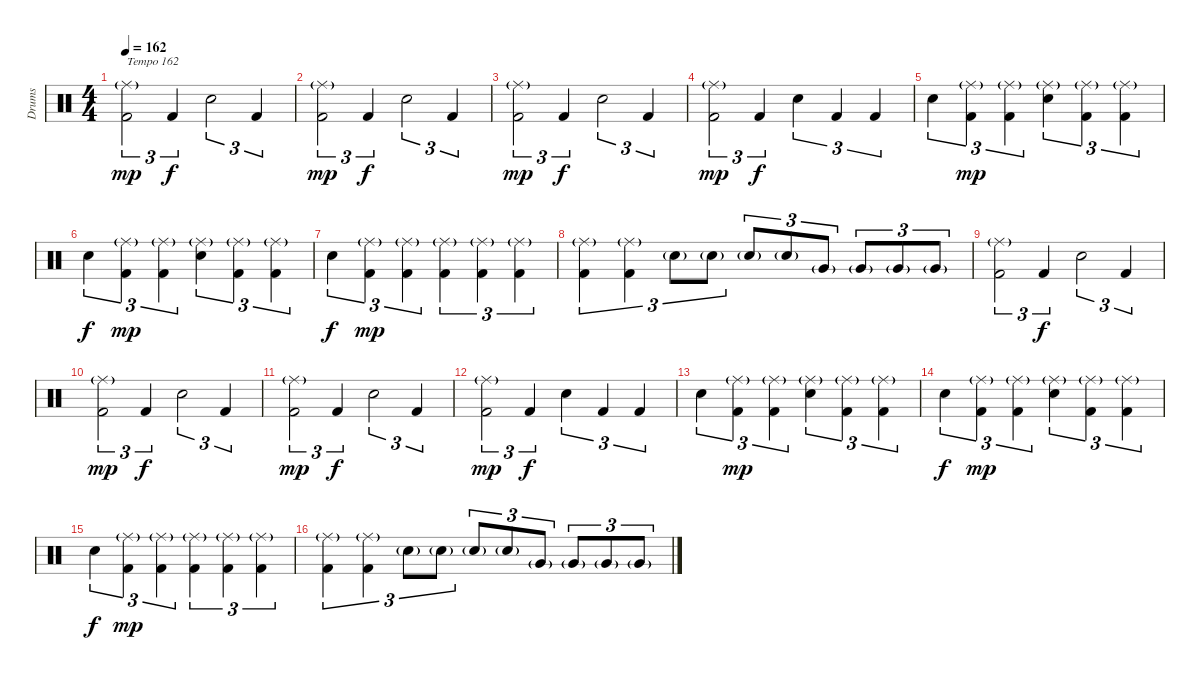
\track ("Drums" "Drums") {instrument percussion}
\staff {score}
\articulation defaults
\ts (4 4)
\tempo 162
\clef neutral
\ks c
("Ride (middle)"{g} "Kick (hit) 2").2{tu (3 2) txt "Tempo 162" dy mp} "Kick (hit) 2".4{tu (3 2) dy f} "Electric Snare (hit)".2{tu (3 2)} "Kick (hit) 2".4{tu (3 2)} |
("Ride (middle)"{g} "Kick (hit) 2").2{tu (3 2) dy mp} "Kick (hit) 2".4{tu (3 2) dy f} "Electric Snare (hit)".2{tu (3 2)} "Kick (hit) 2".4{tu (3 2)} |
("Ride (middle)"{g} "Kick (hit) 2").2{tu (3 2) dy mp} "Kick (hit) 2".4{tu (3 2) dy f} "Electric Snare (hit)".2{tu (3 2)} "Kick (hit) 2".4{tu (3 2)} |
("Ride (middle)"{g} "Kick (hit) 2").2{tu (3 2) dy mp} "Kick (hit) 2".4{tu (3 2) dy f} "Electric Snare (hit)".4{tu (3 2)} "Kick (hit) 2".4{tu (3 2)} "Kick (hit) 2".4{tu (3 2)} |
"Electric Snare (hit)".4{tu (3 2)} ("Ride (middle)"{g} "Kick (hit) 2").4{tu (3 2) dy mp} ("Ride (middle)"{g} "Kick (hit) 2").4{tu (3 2)} ("Ride (middle)"{g} "Electric Snare (hit)").4{tu (3 2)} ("Ride (middle)"{g} "Kick (hit) 2").4{tu (3 2)} ("Ride (middle)"{g} "Kick (hit) 2").4{tu (3 2)} |
"Electric Snare (hit)".4{tu (3 2) dy f} ("Ride (middle)"{g} "Kick (hit) 2").4{tu (3 2) dy mp} ("Ride (middle)"{g} "Kick (hit) 2").4{tu (3 2)} ("Ride (middle)"{g} "Electric Snare (hit)").4{tu (3 2)} ("Ride (middle)"{g} "Kick (hit) 2").4{tu (3 2)} ("Ride (middle)"{g} "Kick (hit) 2").4{tu (3 2)} |
"Electric Snare (hit)".4{tu (3 2) dy f} ("Ride (middle)"{g} "Kick (hit) 2").4{tu (3 2) dy mp} ("Ride (middle)"{g} "Kick (hit) 2").4{tu (3 2)} ("Ride (middle)"{g} "Kick (hit) 2").4{tu (3 2)} ("Ride (middle)"{g} "Kick (hit) 2").4{tu (3 2)} ("Ride (middle)"{g} "Kick (hit) 2").4{tu (3 2)} |
("Ride (middle)"{g} "Kick (hit) 2").4{tu (3 2)} ("Ride (middle)"{g} "Kick (hit) 2").4{tu (3 2)} "Electric Snare (hit)"{g}.8{tu (3 2)} "Electric Snare (hit)"{g}.8{tu (3 2)} "Electric Snare (hit)"{g}.8{tu (3 2)} "Electric Snare (hit)"{g}.8{tu (3 2)} "Very Low Tom (hit)"{g}.8{tu (3 2)} "Very Low Tom (hit)"{g}.8{tu (3 2)} "Very Low Tom (hit)"{g}.8{tu (3 2)} "Very Low Tom (hit)"{g}.8{tu (3 2)} |
("Ride (middle)"{g} "Kick (hit) 2").2{tu (3 2)} "Kick (hit) 2".4{tu (3 2) dy f} "Electric Snare (hit)".2{tu (3 2)} "Kick (hit) 2".4{tu (3 2)} |
("Ride (middle)"{g} "Kick (hit) 2").2{tu (3 2) dy mp} "Kick (hit) 2".4{tu (3 2) dy f} "Electric Snare (hit)".2{tu (3 2)} "Kick (hit) 2".4{tu (3 2)} |
("Ride (middle)"{g} "Kick (hit) 2").2{tu (3 2) dy mp} "Kick (hit) 2".4{tu (3 2) dy f} "Electric Snare (hit)".2{tu (3 2)} "Kick (hit) 2".4{tu (3 2)} |
("Ride (middle)"{g} "Kick (hit) 2").2{tu (3 2) dy mp} "Kick (hit) 2".4{tu (3 2) dy f} "Electric Snare (hit)".4{tu (3 2)} "Kick (hit) 2".4{tu (3 2)} "Kick (hit) 2".4{tu (3 2)} |
"Electric Snare (hit)".4{tu (3 2)} ("Ride (middle)"{g} "Kick (hit) 2").4{tu (3 2) dy mp} ("Ride (middle)"{g} "Kick (hit) 2").4{tu (3 2)} ("Ride (middle)"{g} "Electric Snare (hit)").4{tu (3 2)} ("Ride (middle)"{g} "Kick (hit) 2").4{tu (3 2)} ("Ride (middle)"{g} "Kick (hit) 2").4{tu (3 2)} |
"Electric Snare (hit)".4{tu (3 2) dy f} ("Ride (middle)"{g} "Kick (hit) 2").4{tu (3 2) dy mp} ("Ride (middle)"{g} "Kick (hit) 2").4{tu (3 2)} ("Ride (middle)"{g} "Electric Snare (hit)").4{tu (3 2)} ("Ride (middle)"{g} "Kick (hit) 2").4{tu (3 2)} ("Ride (middle)"{g} "Kick (hit) 2").4{tu (3 2)} |
"Electric Snare (hit)".4{tu (3 2) dy f} ("Ride (middle)"{g} "Kick (hit) 2").4{tu (3 2) dy mp} ("Ride (middle)"{g} "Kick (hit) 2").4{tu (3 2)} ("Ride (middle)"{g} "Kick (hit) 2").4{tu (3 2)} ("Ride (middle)"{g} "Kick (hit) 2").4{tu (3 2)} ("Ride (middle)"{g} "Kick (hit) 2").4{tu (3 2)} |
("Ride (middle)"{g} "Kick (hit) 2").4{tu (3 2)} ("Ride (middle)"{g} "Kick (hit) 2").4{tu (3 2)} "Electric Snare (hit)"{g}.8{tu (3 2)} "Electric Snare (hit)"{g}.8{tu (3 2)} "Electric Snare (hit)"{g}.8{tu (3 2)} "Electric Snare (hit)"{g}.8{tu (3 2)} "Very Low Tom (hit)"{g}.8{tu (3 2)} "Very Low Tom (hit)"{g}.8{tu (3 2)} "Very Low Tom (hit)"{g}.8{tu (3 2)} "Very Low Tom (hit)"{g}.8{tu (3 2)}
